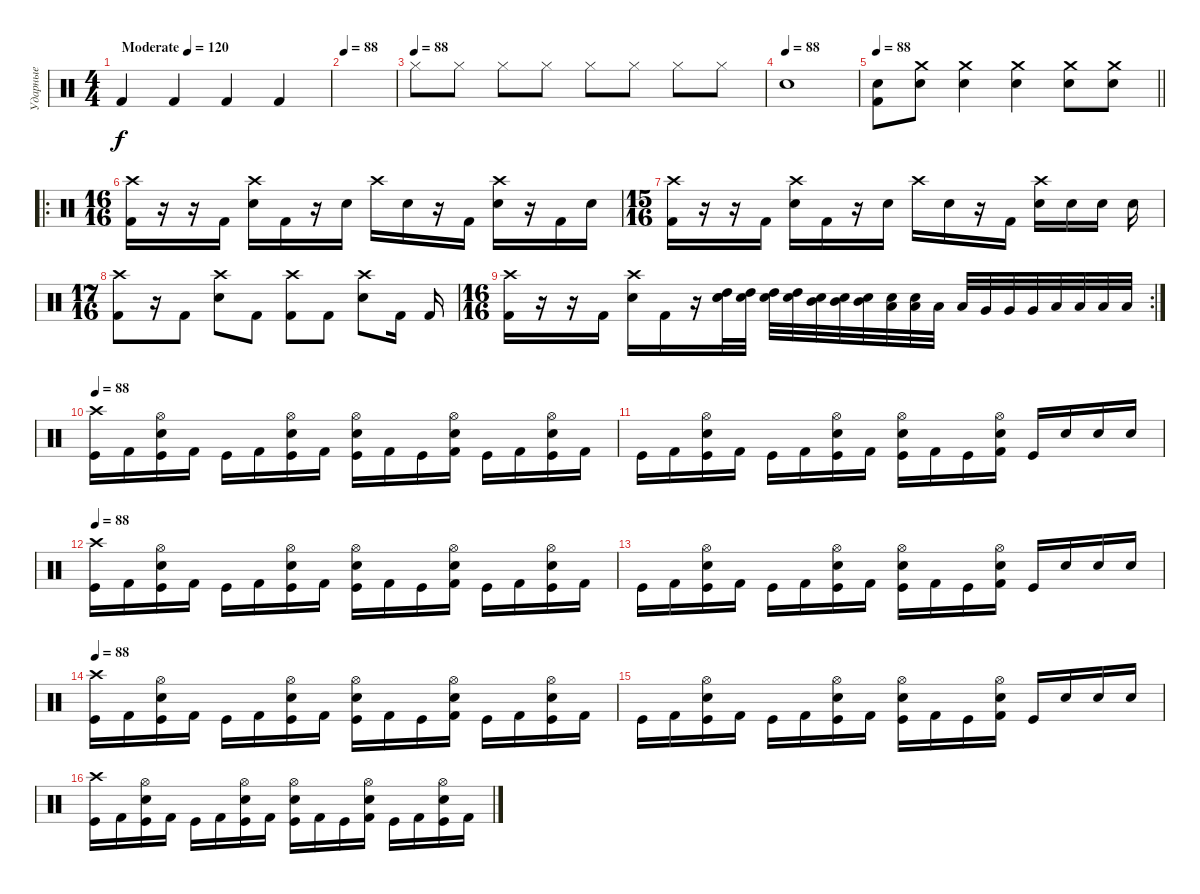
\track ("Ударные" "Ударные") {instrument percussion}
\staff {score}
\articulation defaults
\ts (4 4)
\tempo (120 "Moderate")
\clef neutral
\ks c "Kick (hit) 2".4{dy f} "Kick (hit) 2".4 "Kick (hit) 2".4 "Kick (hit) 2".4
|
\tempo 88
|
\tempo (88)
"Hi-Hat (closed)".8 "Hi-Hat (closed)".8 "Hi-Hat (closed)".8 "Hi-Hat (closed)".8 "Hi-Hat (closed)".8 "Hi-Hat (closed)".8 "Hi-Hat (closed)".8 "Hi-Hat (closed)".8 |
\tempo (88)
"Snare (hit) 2".1 |
\tempo 88
\barLineRight lightlight
("Kick (hit) 2" "Snare (hit) 2").8 ("Crash medium (hit)" "Electric Snare (hit)").8 ("Crash medium (hit)" "Electric Snare (hit)").4 ("Crash medium (hit)" "Electric Snare (hit)").4 ("Electric Snare (hit)" "Crash medium (hit)").8 ("Electric Snare (hit)" "Crash medium (hit)").8 |
\ro
\ts (16 16)
\section ("" "")
("Crash high (hit)" "Kick (hit) 2").16 r.16 r.16 "Kick (hit) 2".16 ("Crash high (hit)" "Electric Snare (hit)").16 "Kick (hit) 2".16 r.16 "Electric Snare (hit)".16 "Crash high (hit)".16 "Electric Snare (hit)".16 r.16 "Kick (hit) 2".16 ("Crash high (hit)" "Electric Snare (hit)").16 r.16 "Kick (hit) 2".16 "Electric Snare (hit)".16 |
\ts (15 16)
("Crash high (hit)" "Kick (hit) 2").16 r.16 r.16 "Kick (hit) 2".16 ("Crash high (hit)" "Electric Snare (hit)").16 "Kick (hit) 2".16 r.16 "Electric Snare (hit)".16 "Crash high (hit)".16 "Electric Snare (hit)".16 r.16 "Kick (hit) 2".16 ("Crash high (hit)" "Electric Snare (hit)").16 "Electric Snare (hit)".16 "Electric Snare (hit)".16 "Electric Snare (hit)".16 |
\ts (17 16)
("Crash high (hit)" "Kick (hit) 2").8 r.16 "Kick (hit) 2".8 ("Crash high (hit)" "Electric Snare (hit)").8 "Kick (hit) 2".8 ("Crash high (hit)" "Kick (hit) 2").8 "Kick (hit) 2".8 ("Crash high (hit)" "Electric Snare (hit)").8 "Kick (hit) 2".16 "Kick (hit) 2".16 |
\rc 2
\ts (16 16)
("Crash high (hit)" "Kick (hit) 2").16 r.16 r.16 "Kick (hit) 2".16 ("Crash high (hit)" "Electric Snare (hit)").16 "Kick (hit) 2".16 r.16 ("Snare (hit) 2" "High Tom (hit)" "Electric Snare (hit)").32 ("High Tom (hit)" "Electric Snare (hit)").32 ("High Tom (hit)" "Electric Snare (hit)").32 ("High Tom (hit)" "Electric Snare (hit)").32 ("Mid Tom (hit)" "Electric Snare (hit)").32 ("Mid Tom (hit)" "Electric Snare (hit)").32 ("Mid Tom (hit)" "Electric Snare (hit)").32 ("Low Tom (hit)" "Electric Snare (hit)").32 ("Low Tom (hit)" "Electric Snare (hit)").32 "Low Tom (hit)".32 "Low Tom (hit)".32 "Very Low Tom (hit)".32 "Very Low Tom (hit)".32 "Very Low Tom (hit)".32 "Low Floor Tom (hit)".32 "Low Floor Tom (hit)".32 "Low Floor Tom (hit)".32 "Low Floor Tom (hit)".32 |
\tempo 88
("Crash high (hit)" "Kick (hit)").16 "Kick (hit) 2".16 ("Hi-Hat (open)" "Kick (hit)" "Electric Snare (hit)").16 "Kick (hit) 2".16 "Kick (hit)".16 "Kick (hit) 2".16 ("Hi-Hat (open)" "Kick (hit)" "Electric Snare (hit)").16 "Kick (hit) 2".16 ("Electric Snare (hit)" "Kick (hit)" "Hi-Hat (open)").16 "Kick (hit) 2".16 "Kick (hit)".16 ("Electric Snare (hit)" "Kick (hit) 2" "Hi-Hat (open)").16 "Kick (hit)".16 "Kick (hit) 2".16 ("Hi-Hat (open)" "Kick (hit)" "Electric Snare (hit)").16 "Kick (hit) 2".16 |
"Kick (hit)".16 "Kick (hit) 2".16 ("Hi-Hat (open)" "Kick (hit)" "Electric Snare (hit)").16 "Kick (hit) 2".16 "Kick (hit)".16 "Kick (hit) 2".16 ("Hi-Hat (open)" "Kick (hit)" "Electric Snare (hit)").16 "Kick (hit) 2".16 ("Electric Snare (hit)" "Kick (hit)" "Hi-Hat (open)").16 "Kick (hit) 2".16 "Kick (hit)".16 ("Electric Snare (hit)" "Kick (hit) 2" "Hi-Hat (open)").16 "Kick (hit)".16 "Snare (hit) 2".16 "Snare (hit) 2".16 "Snare (hit) 2".16 |
\tempo 88
("Crash high (hit)" "Kick (hit)").16 "Kick (hit) 2".16 ("Hi-Hat (open)" "Kick (hit)" "Electric Snare (hit)").16 "Kick (hit) 2".16 "Kick (hit)".16 "Kick (hit) 2".16 ("Hi-Hat (open)" "Kick (hit)" "Electric Snare (hit)").16 "Kick (hit) 2".16 ("Electric Snare (hit)" "Kick (hit)" "Hi-Hat (open)").16 "Kick (hit) 2".16 "Kick (hit)".16 ("Electric Snare (hit)" "Kick (hit) 2" "Hi-Hat (open)").16 "Kick (hit)".16 "Kick (hit) 2".16 ("Hi-Hat (open)" "Kick (hit)" "Electric Snare (hit)").16 "Kick (hit) 2".16 |
"Kick (hit)".16 "Kick (hit) 2".16 ("Hi-Hat (open)" "Kick (hit)" "Electric Snare (hit)").16 "Kick (hit) 2".16 "Kick (hit)".16 "Kick (hit) 2".16 ("Hi-Hat (open)" "Kick (hit)" "Electric Snare (hit)").16 "Kick (hit) 2".16 ("Electric Snare (hit)" "Kick (hit)" "Hi-Hat (open)").16 "Kick (hit) 2".16 "Kick (hit)".16 ("Electric Snare (hit)" "Kick (hit) 2" "Hi-Hat (open)").16 "Kick (hit)".16 "Snare (hit) 2".16 "Snare (hit) 2".16 "Snare (hit) 2".16 |
\tempo 88
("Crash high (hit)" "Kick (hit)").16 "Kick (hit) 2".16 ("Hi-Hat (open)" "Kick (hit)" "Electric Snare (hit)").16 "Kick (hit) 2".16 "Kick (hit)".16 "Kick (hit) 2".16 ("Hi-Hat (open)" "Kick (hit)" "Electric Snare (hit)").16 "Kick (hit) 2".16 ("Electric Snare (hit)" "Kick (hit)" "Hi-Hat (open)").16 "Kick (hit) 2".16 "Kick (hit)".16 ("Electric Snare (hit)" "Kick (hit) 2" "Hi-Hat (open)").16 "Kick (hit)".16 "Kick (hit) 2".16 ("Hi-Hat (open)" "Kick (hit)" "Electric Snare (hit)").16 "Kick (hit) 2".16 |
"Kick (hit)".16 "Kick (hit) 2".16 ("Hi-Hat (open)" "Kick (hit)" "Electric Snare (hit)").16 "Kick (hit) 2".16 "Kick (hit)".16 "Kick (hit) 2".16 ("Hi-Hat (open)" "Kick (hit)" "Electric Snare (hit)").16 "Kick (hit) 2".16 ("Electric Snare (hit)" "Kick (hit)" "Hi-Hat (open)").16 "Kick (hit) 2".16 "Kick (hit)".16 ("Electric Snare (hit)" "Kick (hit) 2" "Hi-Hat (open)").16 "Kick (hit)".16 "Snare (hit) 2".16 "Snare (hit) 2".16 "Snare (hit) 2".16 |
("Crash high (hit)" "Kick (hit)").16 "Kick (hit) 2".16 ("Hi-Hat (open)" "Kick (hit)" "Electric Snare (hit)").16 "Kick (hit) 2".16 "Kick (hit)".16 "Kick (hit) 2".16 ("Hi-Hat (open)" "Kick (hit)" "Electric Snare (hit)").16 "Kick (hit) 2".16 ("Electric Snare (hit)" "Kick (hit)" "Hi-Hat (open)").16 "Kick (hit) 2".16 "Kick (hit)".16 ("Electric Snare (hit)" "Kick (hit) 2" "Hi-Hat (open)").16 "Kick (hit)".16 "Kick (hit) 2".16 ("Hi-Hat (open)" "Kick (hit)" "Electric Snare (hit)").16 "Kick (hit) 2".16
